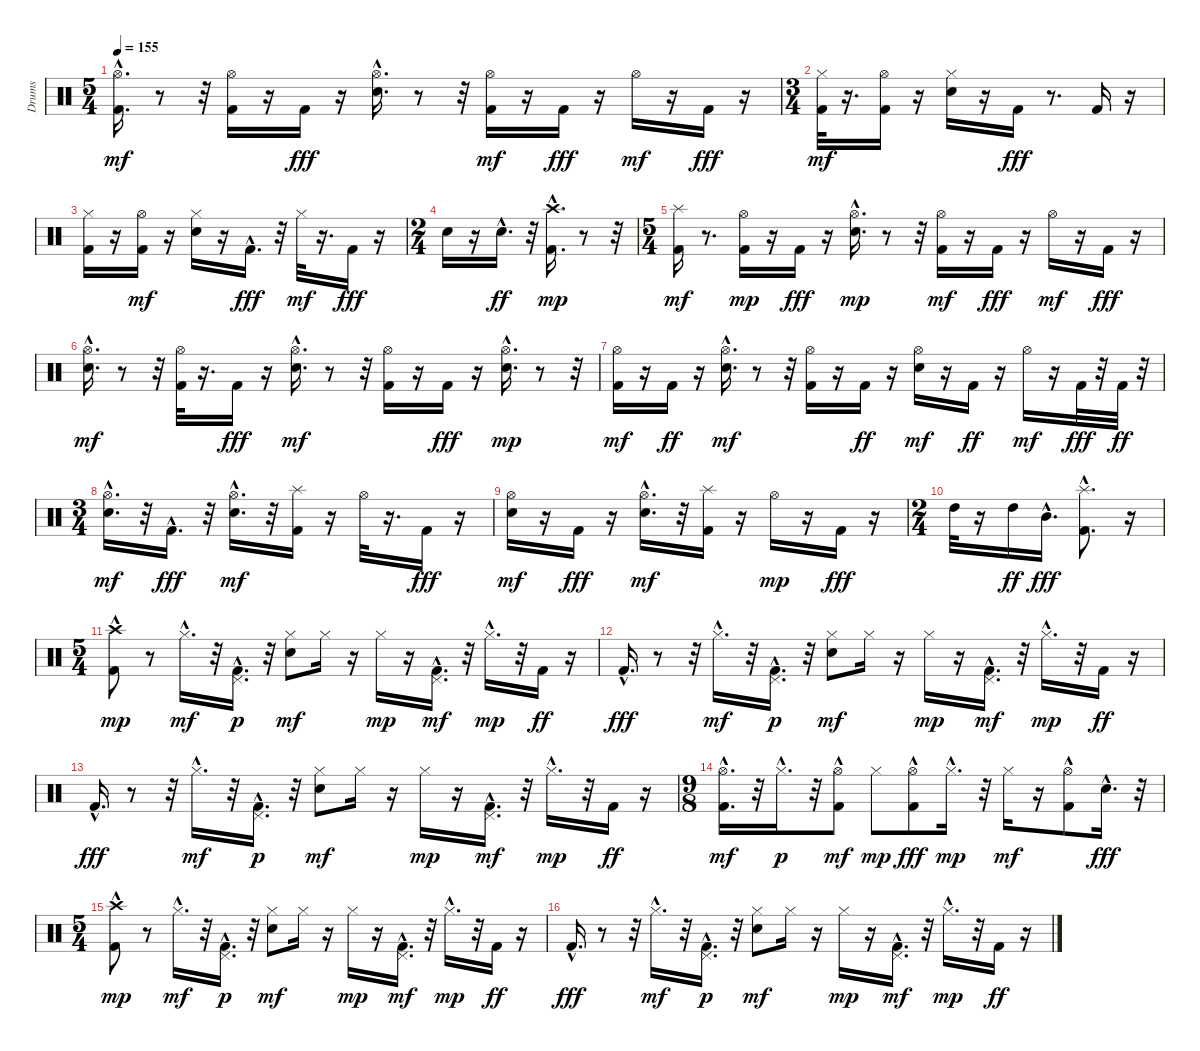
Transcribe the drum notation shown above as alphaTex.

\track ("Drums" "Drums") {instrument percussion}
\staff {score}
\articulation defaults
\ts (5 4)
\tempo 155
\clef neutral
\ks c
("Kick (hit) 2"{hac} "Hi-Hat (open)").16{d dy mf} r.8 r.32 ("Kick (hit) 2" "Hi-Hat (open)").16 r.16 "Kick (hit) 2".16{dy fff} r.16 ("Electric Snare (hit)"{hac} "Hi-Hat (open)").16{d} r.8 r.32 ("Kick (hit) 2" "Hi-Hat (open)").16{dy mf} r.16 "Kick (hit) 2".16{dy fff} r.16 "Hi-Hat (open)".16{dy mf} r.16 "Kick (hit) 2".16{dy fff} r.16 |
\ts (3 4)
("Kick (hit) 2" "Hi-Hat (closed)").32{dy mf} r.16{d} ("Kick (hit) 2" "Hi-Hat (open)").16 r.16 ("Electric Snare (hit)" "Hi-Hat (closed)").16 r.16 "Kick (hit) 2".16{dy fff} r.8{d} "Kick (hit) 2".16 r.16 |
("Kick (hit) 2" "Hi-Hat (closed)").16 r.16 ("Kick (hit) 2" "Hi-Hat (open)").16{dy mf} r.16 ("Electric Snare (hit)" "Hi-Hat (closed)").16 r.16 "Kick (hit) 2"{hac}.16{d dy fff} r.32 "Hi-Hat (closed)".32{dy mf} r.16{d} "Kick (hit) 2".16{dy fff} r.16 |
\ts (2 4)
"Electric Snare (hit)".16 r.16 "Electric Snare (hit)"{hac}.16{d dy ff} r.32 ("Kick (hit) 2"{hac} "Crash high (hit)").16{d dy mp} r.8 r.32 |
\ts (5 4)
("Kick (hit) 2" "Splash (hit)").16{dy mf} r.8{d} ("Kick (hit) 2" "Hi-Hat (open)").16{dy mp} r.16 "Kick (hit) 2".16{dy fff} r.16 ("Electric Snare (hit)"{hac} "Hi-Hat (open)").16{d dy mp} r.8 r.32 ("Kick (hit) 2" "Hi-Hat (open)").16{dy mf} r.16 "Kick (hit) 2".16{dy fff} r.16 "Hi-Hat (open)".16{dy mf} r.16 "Kick (hit) 2".16{dy fff} r.16 |
("Electric Snare (hit)"{hac} "Hi-Hat (open)").16{d dy mf} r.8 r.32 ("Kick (hit) 2" "Hi-Hat (open)").32 r.16{d} "Kick (hit) 2".16{dy fff} r.16 ("Electric Snare (hit)"{hac} "Hi-Hat (open)").16{d dy mf} r.8 r.32 ("Kick (hit) 2" "Hi-Hat (open)").16 r.16 "Kick (hit) 2".16{dy fff} r.16 ("Electric Snare (hit)"{hac} "Hi-Hat (open)").16{d dy mp} r.8 r.32 |
("Kick (hit) 2" "Hi-Hat (open)").16{dy mf} r.16 "Kick (hit) 2".16{dy ff} r.16 ("Electric Snare (hit)"{hac} "Hi-Hat (open)").16{d dy mf} r.8 r.32 ("Kick (hit) 2" "Hi-Hat (open)").16 r.16 "Kick (hit) 2".16{dy ff} r.16 ("Electric Snare (hit)" "Hi-Hat (open)").16{dy mf} r.16 "Kick (hit) 2".16{dy ff} r.16 "Hi-Hat (open)".16{dy mf} r.16 "Kick (hit) 2".32{dy fff} r.32 "Kick (hit) 2".32{dy ff} r.32 |
\ts (3 4)
("Electric Snare (hit)"{hac} "Hi-Hat (open)").16{d dy mf} r.32 "Kick (hit) 2"{hac}.16{d dy fff} r.32 ("Electric Snare (hit)"{hac} "Hi-Hat (open)").16{d dy mf} r.32 ("Kick (hit) 2" "Splash (hit)").16 r.16 "Hi-Hat (open)".32 r.16{d} "Kick (hit) 2".16{dy fff} r.16 |
("Electric Snare (hit)" "Hi-Hat (open)").16{dy mf} r.16 "Kick (hit) 2".16{dy fff} r.16 ("Electric Snare (hit)"{hac} "Hi-Hat (open)"{hac}).16{d dy mf} r.32 ("Kick (hit) 2" "Splash (hit)").16 r.16 "Hi-Hat (open)".16{dy mp} r.16 "Kick (hit) 2".16{dy fff} r.16 |
\ts (2 4)
"High Tom (hit)".32 r.16 "High Tom (hit)".16{dy ff} "Mid Tom (hit)"{hac}.16{d dy fff} ("Splash (hit)" "Kick (hit) 2"{hac}).8{d} r.16 |
\ts (5 4)
("Kick (hit) 2"{hac} "Crash high (hit)").8{dy mp} r.8 "Hi-Hat (closed)"{hac}.16{d dy mf} r.32 ("Kick (hit) 2"{hac} "Pedal Hi-Hat (hit)"{hac}).16{d dy p} r.32 ("Electric Snare (hit)" "Hi-Hat (closed)").8{dy mf} "Hi-Hat (closed)".16 r.16 "Hi-Hat (closed)".16{dy mp} r.16 ("Kick (hit) 2"{hac} "Pedal Hi-Hat (hit)"{hac}).16{d dy mf} r.32 "Hi-Hat (closed)"{hac}.16{d dy mp} r.32 "Kick (hit) 2".16{dy ff} r.16 |
"Kick (hit) 2"{hac}.16{d dy fff} r.8 r.32 "Hi-Hat (closed)"{hac}.16{d dy mf} r.32 ("Kick (hit) 2"{hac} "Pedal Hi-Hat (hit)"{hac}).16{d dy p} r.32 ("Electric Snare (hit)" "Hi-Hat (closed)").8{dy mf} "Hi-Hat (closed)".16 r.16 "Hi-Hat (closed)".16{dy mp} r.16 ("Kick (hit) 2"{hac} "Pedal Hi-Hat (hit)"{hac}).16{d dy mf} r.32 "Hi-Hat (closed)"{hac}.16{d dy mp} r.32 "Kick (hit) 2".16{dy ff} r.16 |
"Kick (hit) 2"{hac}.16{d dy fff} r.8 r.32 "Hi-Hat (closed)"{hac}.16{d dy mf} r.32 ("Kick (hit) 2"{hac} "Pedal Hi-Hat (hit)"{hac}).16{d dy p} r.32 ("Electric Snare (hit)" "Hi-Hat (closed)").8{dy mf} "Hi-Hat (closed)".16 r.16 "Hi-Hat (closed)".16{dy mp} r.16 ("Kick (hit) 2"{hac} "Pedal Hi-Hat (hit)"{hac}).16{d dy mf} r.32 "Hi-Hat (closed)"{hac}.16{d dy mp} r.32 "Kick (hit) 2".16{dy ff} r.16 |
\ts (9 8)
("Kick (hit) 2"{hac} "Hi-Hat (open)"{hac}).16{d dy mf} r.32 "Hi-Hat (closed)"{hac}.16{d dy p} r.32 ("Kick (hit) 2"{hac} "Hi-Hat (open)").8{dy mf} "Hi-Hat (closed)".8{dy mp} ("Kick (hit) 2"{hac} "Hi-Hat (open)").8{dy fff} "Hi-Hat (closed)"{hac}.16{d dy mp} r.32 "Hi-Hat (closed)".16{dy mf} r.16 ("Kick (hit) 2"{hac} "Hi-Hat (open)").8 "Electric Snare (hit)"{hac}.16{d dy fff} r.32 |
\ts (5 4)
("Kick (hit) 2"{hac} "Crash high (hit)").8{dy mp} r.8 "Hi-Hat (closed)"{hac}.16{d dy mf} r.32 ("Kick (hit) 2"{hac} "Pedal Hi-Hat (hit)"{hac}).16{d dy p} r.32 ("Electric Snare (hit)" "Hi-Hat (closed)").8{dy mf} "Hi-Hat (closed)".16 r.16 "Hi-Hat (closed)".16{dy mp} r.16 ("Kick (hit) 2"{hac} "Pedal Hi-Hat (hit)"{hac}).16{d dy mf} r.32 "Hi-Hat (closed)"{hac}.16{d dy mp} r.32 "Kick (hit) 2".16{dy ff} r.16 |
"Kick (hit) 2"{hac}.16{d dy fff} r.8 r.32 "Hi-Hat (closed)"{hac}.16{d dy mf} r.32 ("Kick (hit) 2"{hac} "Pedal Hi-Hat (hit)"{hac}).16{d dy p} r.32 ("Electric Snare (hit)" "Hi-Hat (closed)").8{dy mf} "Hi-Hat (closed)".16 r.16 "Hi-Hat (closed)".16{dy mp} r.16 ("Kick (hit) 2"{hac} "Pedal Hi-Hat (hit)"{hac}).16{d dy mf} r.32 "Hi-Hat (closed)"{hac}.16{d dy mp} r.32 "Kick (hit) 2".16{dy ff} r.16
